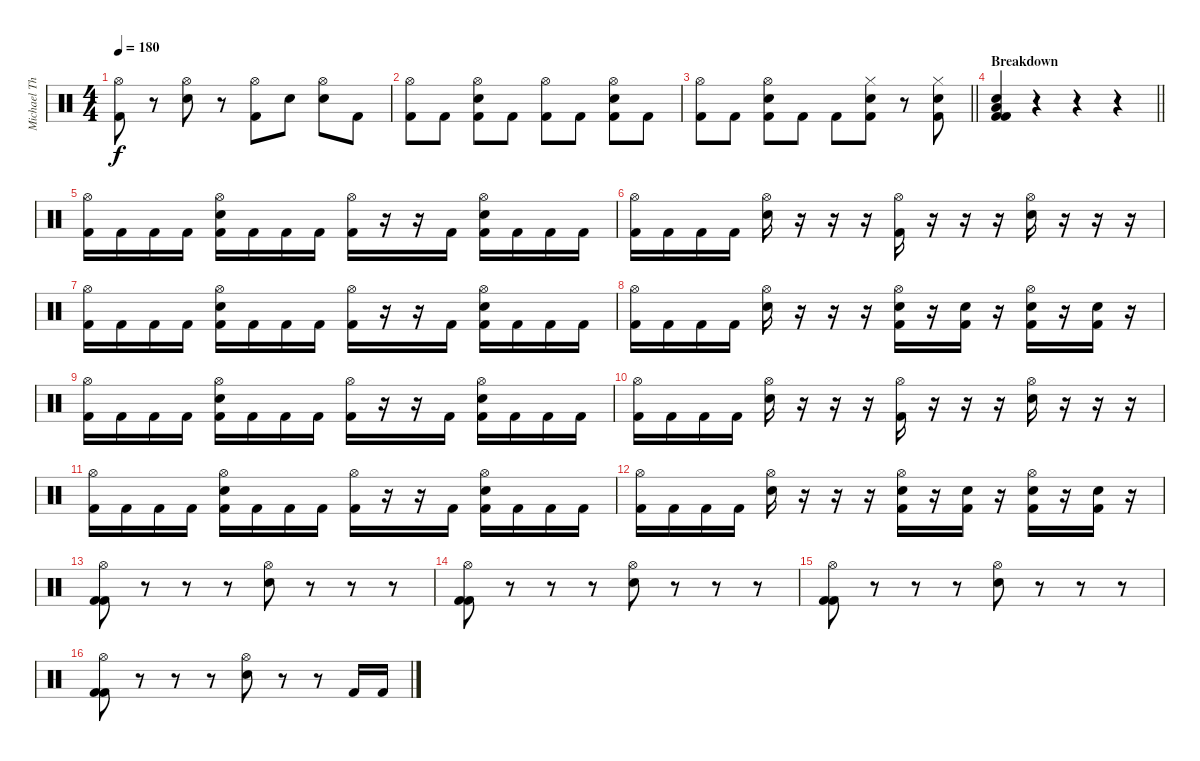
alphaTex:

\track ("Michael Thomas" "Michael Th") {instrument percussion}
\staff
\articulation defaults
\ts (4 4)
\tempo 180
\clef neutral
\ks c
("Hi-Hat (open)" "Kick (hit) 2").8{dy f} r.8 ("Hi-Hat (open)" "Electric Snare (hit)").8 r.8 ("Hi-Hat (open)" "Kick (hit) 2").8 "Electric Snare (hit)".8 ("Hi-Hat (open)" "Electric Snare (hit)").8 "Kick (hit) 2".8 |
("Hi-Hat (open)" "Kick (hit) 2").8 "Kick (hit) 2".8 ("Hi-Hat (open)" "Electric Snare (hit)" "Kick (hit) 2").8 "Kick (hit) 2".8 ("Hi-Hat (open)" "Kick (hit) 2").8 "Kick (hit) 2".8 ("Hi-Hat (open)" "Electric Snare (hit)" "Kick (hit) 2").8 "Kick (hit) 2".8 |
\barLineRight lightlight
("Hi-Hat (open)" "Kick (hit) 2").8 "Kick (hit) 2".8 ("Hi-Hat (open)" "Electric Snare (hit)" "Kick (hit) 2").8 "Kick (hit) 2".8 "Kick (hit) 2".8 ("Hi-Hat (closed)" "Electric Snare (hit)" "Kick (hit) 2").8 r.8 ("Hi-Hat (closed)" "Electric Snare (hit)" "Kick (hit) 2").8 |
\section ("" "Breakdown")
\barLineRight lightlight
("Low Floor Tom (hit)" "Electric Snare (hit)" "Kick (hit) 2" "Kick (hit) 2").4 r.4 r.4 r.4 |
("Hi-Hat (open)" "Kick (hit) 2").16 "Kick (hit) 2".16 "Kick (hit) 2".16 "Kick (hit) 2".16 ("Hi-Hat (open)" "Electric Snare (hit)" "Kick (hit) 2").16 "Kick (hit) 2".16 "Kick (hit) 2".16 "Kick (hit) 2".16 ("Hi-Hat (open)" "Kick (hit) 2").16 r.16 r.16 "Kick (hit) 2".16 ("Hi-Hat (open)" "Electric Snare (hit)" "Kick (hit) 2").16 "Kick (hit) 2".16 "Kick (hit) 2".16 "Kick (hit) 2".16 |
("Hi-Hat (open)" "Kick (hit) 2").16 "Kick (hit) 2".16 "Kick (hit) 2".16 "Kick (hit) 2".16 ("Hi-Hat (open)" "Electric Snare (hit)").16 r.16 r.16 r.16 ("Hi-Hat (open)" "Kick (hit) 2").16 r.16 r.16 r.16 ("Hi-Hat (open)" "Electric Snare (hit)").16 r.16 r.16 r.16 |
("Hi-Hat (open)" "Kick (hit) 2").16 "Kick (hit) 2".16 "Kick (hit) 2".16 "Kick (hit) 2".16 ("Hi-Hat (open)" "Electric Snare (hit)" "Kick (hit) 2").16 "Kick (hit) 2".16 "Kick (hit) 2".16 "Kick (hit) 2".16 ("Hi-Hat (open)" "Kick (hit) 2").16 r.16 r.16 "Kick (hit) 2".16 ("Hi-Hat (open)" "Electric Snare (hit)" "Kick (hit) 2").16 "Kick (hit) 2".16 "Kick (hit) 2".16 "Kick (hit) 2".16 |
("Hi-Hat (open)" "Kick (hit) 2").16 "Kick (hit) 2".16 "Kick (hit) 2".16 "Kick (hit) 2".16 ("Hi-Hat (open)" "Electric Snare (hit)").16 r.16 r.16 r.16 ("Hi-Hat (open)" "Electric Snare (hit)" "Kick (hit) 2").16 r.16 ("Electric Snare (hit)" "Kick (hit) 2").16 r.16 ("Hi-Hat (open)" "Electric Snare (hit)" "Kick (hit) 2").16 r.16 ("Electric Snare (hit)" "Kick (hit) 2").16 r.16 |
("Hi-Hat (open)" "Kick (hit) 2").16 "Kick (hit) 2".16 "Kick (hit) 2".16 "Kick (hit) 2".16 ("Hi-Hat (open)" "Electric Snare (hit)" "Kick (hit) 2").16 "Kick (hit) 2".16 "Kick (hit) 2".16 "Kick (hit) 2".16 ("Hi-Hat (open)" "Kick (hit) 2").16 r.16 r.16 "Kick (hit) 2".16 ("Hi-Hat (open)" "Electric Snare (hit)" "Kick (hit) 2").16 "Kick (hit) 2".16 "Kick (hit) 2".16 "Kick (hit) 2".16 |
("Hi-Hat (open)" "Kick (hit) 2").16 "Kick (hit) 2".16 "Kick (hit) 2".16 "Kick (hit) 2".16 ("Hi-Hat (open)" "Electric Snare (hit)").16 r.16 r.16 r.16 ("Hi-Hat (open)" "Kick (hit) 2").16 r.16 r.16 r.16 ("Hi-Hat (open)" "Electric Snare (hit)").16 r.16 r.16 r.16 |
("Hi-Hat (open)" "Kick (hit) 2").16 "Kick (hit) 2".16 "Kick (hit) 2".16 "Kick (hit) 2".16 ("Hi-Hat (open)" "Electric Snare (hit)" "Kick (hit) 2").16 "Kick (hit) 2".16 "Kick (hit) 2".16 "Kick (hit) 2".16 ("Hi-Hat (open)" "Kick (hit) 2").16 r.16 r.16 "Kick (hit) 2".16 ("Hi-Hat (open)" "Electric Snare (hit)" "Kick (hit) 2").16 "Kick (hit) 2".16 "Kick (hit) 2".16 "Kick (hit) 2".16 |
("Hi-Hat (open)" "Kick (hit) 2").16 "Kick (hit) 2".16 "Kick (hit) 2".16 "Kick (hit) 2".16 ("Hi-Hat (open)" "Electric Snare (hit)").16 r.16 r.16 r.16 ("Hi-Hat (open)" "Electric Snare (hit)" "Kick (hit) 2").16 r.16 ("Electric Snare (hit)" "Kick (hit) 2").16 r.16 ("Hi-Hat (open)" "Electric Snare (hit)" "Kick (hit) 2").16 r.16 ("Electric Snare (hit)" "Kick (hit) 2").16 r.16 |
("Hi-Hat (open)" "Kick (hit) 2" "Kick (hit) 2").8 r.8 r.8 r.8 ("Hi-Hat (open)" "Electric Snare (hit)").8 r.8 r.8 r.8 |
("Hi-Hat (open)" "Kick (hit) 2" "Kick (hit) 2").8 r.8 r.8 r.8 ("Hi-Hat (open)" "Electric Snare (hit)").8 r.8 r.8 r.8 |
("Hi-Hat (open)" "Kick (hit) 2" "Kick (hit) 2").8 r.8 r.8 r.8 ("Hi-Hat (open)" "Electric Snare (hit)").8 r.8 r.8 r.8 |
("Hi-Hat (open)" "Kick (hit) 2" "Kick (hit) 2").8 r.8 r.8 r.8 ("Hi-Hat (open)" "Electric Snare (hit)").8 r.8 r.8 "Kick (hit) 2".16 "Kick (hit) 2".16
